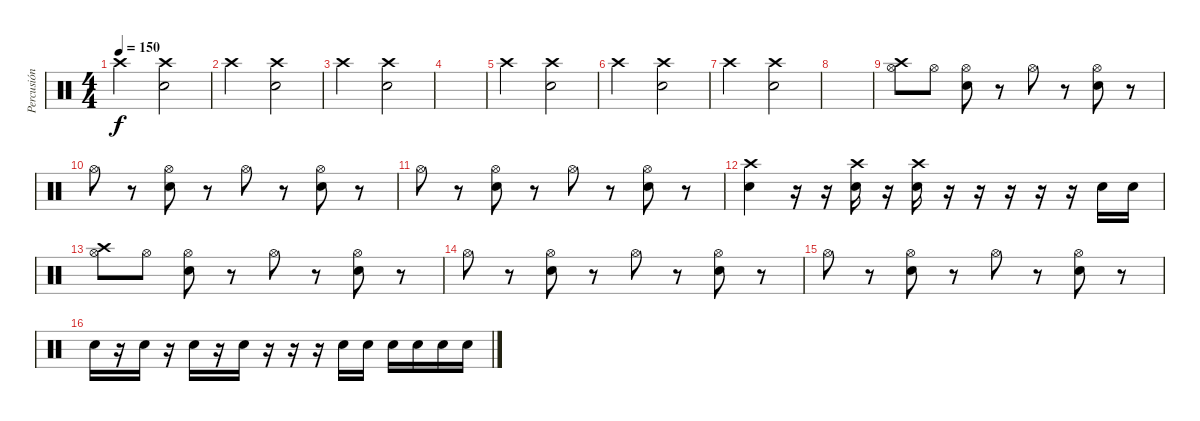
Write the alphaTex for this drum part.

\track ("Percusión" "Percusión") {instrument percussion}
\staff {score}
\articulation defaults
\ts (4 4)
\tempo 150
\clef neutral
\ks c "Crash high (hit)".2{dy f}
("Snare (hit) 2" "Crash high (hit)").2 |
"Crash high (hit)".2 ("Snare (hit) 2" "Crash high (hit)").2 |
"Crash high (hit)".2 ("Snare (hit) 2" "Crash high (hit)").2 |
|
"Crash high (hit)".2 ("Snare (hit) 2" "Crash high (hit)").2 |
"Crash high (hit)".2 ("Snare (hit) 2" "Crash high (hit)").2 |
"Crash high (hit)".2 ("Snare (hit) 2" "Crash high (hit)").2 |
|
("Crash high (hit)" "Hi-Hat (open)").8 "Hi-Hat (open)".8 ("Hi-Hat (open)" "Snare (hit) 2").8 r.8 "Hi-Hat (open)".8 r.8 ("Hi-Hat (open)" "Snare (hit) 2").8 r.8 |
"Hi-Hat (open)".8 r.8 ("Hi-Hat (open)" "Snare (hit) 2").8 r.8 "Hi-Hat (open)".8 r.8 ("Hi-Hat (open)" "Snare (hit) 2").8 r.8 |
"Hi-Hat (open)".8 r.8 ("Hi-Hat (open)" "Snare (hit) 2").8 r.8 "Hi-Hat (open)".8 r.8 ("Hi-Hat (open)" "Snare (hit) 2").8 r.8 |
("Crash high (hit)" "Snare (hit) 2").4 r.16 r.16 ("Crash high (hit)" "Snare (hit) 2").16 r.16 ("Crash high (hit)" "Snare (hit) 2").16 r.16 r.16 r.16 r.16 r.16 "Snare (hit) 2".16 "Snare (hit) 2".16 |
("Crash high (hit)" "Hi-Hat (open)").8 "Hi-Hat (open)".8 ("Hi-Hat (open)" "Snare (hit) 2").8 r.8 "Hi-Hat (open)".8 r.8 ("Hi-Hat (open)" "Snare (hit) 2").8 r.8 |
"Hi-Hat (open)".8 r.8 ("Hi-Hat (open)" "Snare (hit) 2").8 r.8 "Hi-Hat (open)".8 r.8 ("Hi-Hat (open)" "Snare (hit) 2").8 r.8 |
"Hi-Hat (open)".8 r.8 ("Hi-Hat (open)" "Snare (hit) 2").8 r.8 "Hi-Hat (open)".8 r.8 ("Hi-Hat (open)" "Snare (hit) 2").8 r.8 |
"Snare (hit) 2".16 r.16 "Snare (hit) 2".16 r.16 "Snare (hit) 2".16 r.16 "Snare (hit) 2".16 r.16 r.16 r.16 "Snare (hit) 2".16 "Snare (hit) 2".16 "Snare (hit) 2".16 "Snare (hit) 2".16 "Snare (hit) 2".16 "Snare (hit) 2".16
